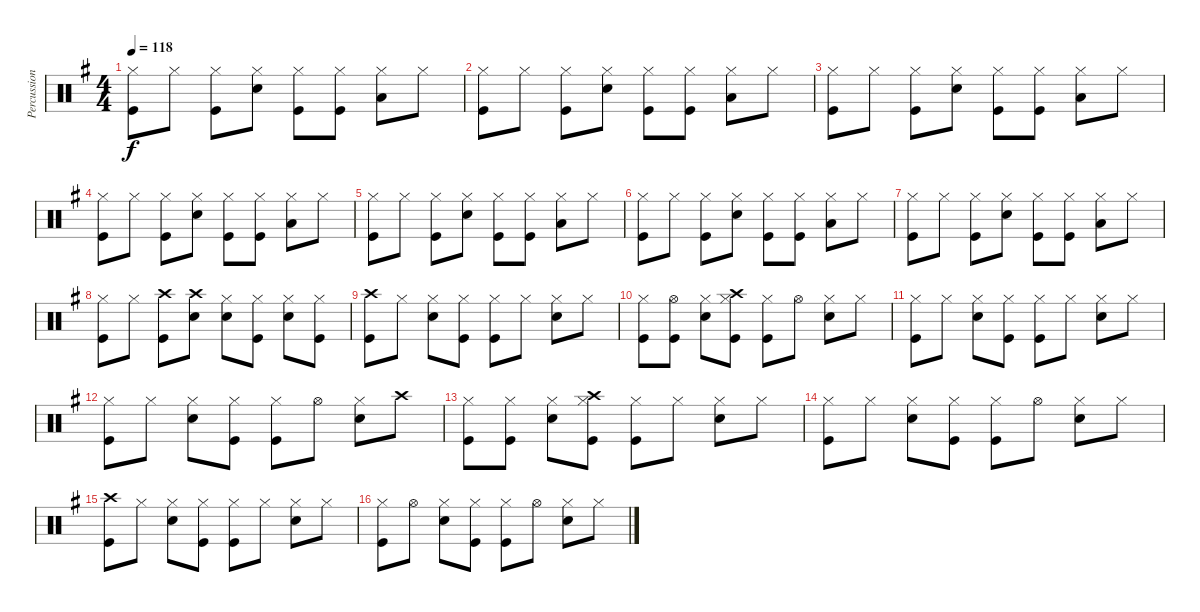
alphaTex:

\track ("Percussion" "Percussion") {instrument percussion}
\staff {score}
\articulation defaults
\ts (4 4)
\tempo 118
\clef neutral
\ks g
("Hi-Hat (closed)" "Kick (hit)").8{dy f} "Hi-Hat (closed)".8 ("Hi-Hat (closed)" "Kick (hit)").8 ("Hi-Hat (closed)" "Electric Snare (hit)").8 ("Hi-Hat (closed)" "Kick (hit)").8 ("Hi-Hat (closed)" "Kick (hit)").8 ("Hi-Hat (closed)" "Low Tom (hit)").8 "Hi-Hat (closed)".8 |
("Hi-Hat (closed)" "Kick (hit)").8 "Hi-Hat (closed)".8 ("Hi-Hat (closed)" "Kick (hit)").8 ("Hi-Hat (closed)" "Electric Snare (hit)").8 ("Hi-Hat (closed)" "Kick (hit)").8 ("Hi-Hat (closed)" "Kick (hit)").8 ("Hi-Hat (closed)" "Low Tom (hit)").8 "Hi-Hat (closed)".8 |
("Hi-Hat (closed)" "Kick (hit)").8 "Hi-Hat (closed)".8 ("Hi-Hat (closed)" "Kick (hit)").8 ("Hi-Hat (closed)" "Electric Snare (hit)").8 ("Hi-Hat (closed)" "Kick (hit)").8 ("Hi-Hat (closed)" "Kick (hit)").8 ("Hi-Hat (closed)" "Low Tom (hit)").8 "Hi-Hat (closed)".8 |
("Hi-Hat (closed)" "Kick (hit)").8 "Hi-Hat (closed)".8 ("Hi-Hat (closed)" "Kick (hit)").8 ("Hi-Hat (closed)" "Electric Snare (hit)").8 ("Hi-Hat (closed)" "Kick (hit)").8 ("Hi-Hat (closed)" "Kick (hit)").8 ("Hi-Hat (closed)" "Low Tom (hit)").8 "Hi-Hat (closed)".8 |
("Hi-Hat (closed)" "Kick (hit)").8 "Hi-Hat (closed)".8 ("Hi-Hat (closed)" "Kick (hit)").8 ("Hi-Hat (closed)" "Electric Snare (hit)").8 ("Hi-Hat (closed)" "Kick (hit)").8 ("Hi-Hat (closed)" "Kick (hit)").8 ("Hi-Hat (closed)" "Low Tom (hit)").8 "Hi-Hat (closed)".8 |
("Hi-Hat (closed)" "Kick (hit)").8 "Hi-Hat (closed)".8 ("Hi-Hat (closed)" "Kick (hit)").8 ("Hi-Hat (closed)" "Electric Snare (hit)").8 ("Hi-Hat (closed)" "Kick (hit)").8 ("Hi-Hat (closed)" "Kick (hit)").8 ("Hi-Hat (closed)" "Low Tom (hit)").8 "Hi-Hat (closed)".8 |
("Hi-Hat (closed)" "Kick (hit)").8 "Hi-Hat (closed)".8 ("Hi-Hat (closed)" "Kick (hit)").8 ("Hi-Hat (closed)" "Electric Snare (hit)").8 ("Hi-Hat (closed)" "Kick (hit)").8 ("Hi-Hat (closed)" "Kick (hit)").8 ("Hi-Hat (closed)" "Low Tom (hit)").8 "Hi-Hat (closed)".8 |
("Hi-Hat (closed)" "Kick (hit)").8 "Hi-Hat (closed)".8 ("Crash high (hit)" "Kick (hit)").8 ("Crash high (hit)" "Electric Snare (hit)").8 ("Hi-Hat (closed)" "Electric Snare (hit)").8 ("Hi-Hat (closed)" "Kick (hit)").8 ("Hi-Hat (closed)" "Electric Snare (hit)").8 ("Hi-Hat (closed)" "Kick (hit)").8 |
("Crash high (hit)" "Kick (hit)").8 "Hi-Hat (closed)".8 ("Hi-Hat (closed)" "Electric Snare (hit)").8 ("Hi-Hat (closed)" "Kick (hit)").8 ("Hi-Hat (closed)" "Kick (hit)").8 "Hi-Hat (closed)".8 ("Hi-Hat (closed)" "Electric Snare (hit)").8 "Hi-Hat (closed)".8 |
("Hi-Hat (closed)" "Kick (hit)").8 ("Hi-Hat (open)" "Kick (hit)").8 ("Hi-Hat (closed)" "Electric Snare (hit)").8 ("Hi-Hat (closed)" "Crash high (hit)" "Kick (hit)").8 ("Hi-Hat (closed)" "Kick (hit)").8 "Hi-Hat (open)".8 ("Hi-Hat (closed)" "Electric Snare (hit)").8 "Hi-Hat (closed)".8 |
("Hi-Hat (closed)" "Kick (hit)").8 "Hi-Hat (closed)".8 ("Hi-Hat (closed)" "Electric Snare (hit)").8 ("Hi-Hat (closed)" "Kick (hit)").8 ("Hi-Hat (closed)" "Kick (hit)").8 "Hi-Hat (closed)".8 ("Hi-Hat (closed)" "Electric Snare (hit)").8 "Hi-Hat (closed)".8 |
("Hi-Hat (closed)" "Kick (hit)").8 "Hi-Hat (closed)".8 ("Hi-Hat (closed)" "Electric Snare (hit)").8 ("Hi-Hat (closed)" "Kick (hit)").8 ("Hi-Hat (closed)" "Kick (hit)").8 "Hi-Hat (open)".8 ("Hi-Hat (closed)" "Electric Snare (hit)").8 "Crash high (hit)".8 |
("Hi-Hat (closed)" "Kick (hit)").8 ("Hi-Hat (closed)" "Kick (hit)").8 ("Hi-Hat (closed)" "Electric Snare (hit)").8 ("Hi-Hat (closed)" "Crash high (hit)" "Kick (hit)").8 ("Hi-Hat (closed)" "Kick (hit)").8 "Hi-Hat (closed)".8 ("Hi-Hat (closed)" "Electric Snare (hit)").8 "Hi-Hat (closed)".8 |
("Hi-Hat (closed)" "Kick (hit)").8 "Hi-Hat (closed)".8 ("Hi-Hat (closed)" "Electric Snare (hit)").8 ("Hi-Hat (closed)" "Kick (hit)").8 ("Hi-Hat (closed)" "Kick (hit)").8 "Hi-Hat (open)".8 ("Hi-Hat (closed)" "Electric Snare (hit)").8 "Hi-Hat (closed)".8 |
("Crash high (hit)" "Kick (hit)").8 "Hi-Hat (closed)".8 ("Hi-Hat (closed)" "Electric Snare (hit)").8 ("Hi-Hat (closed)" "Kick (hit)").8 ("Hi-Hat (closed)" "Kick (hit)").8 "Hi-Hat (closed)".8 ("Hi-Hat (closed)" "Electric Snare (hit)").8 "Hi-Hat (closed)".8 |
("Hi-Hat (closed)" "Kick (hit)").8 "Hi-Hat (open)".8 ("Hi-Hat (closed)" "Electric Snare (hit)").8 ("Hi-Hat (closed)" "Kick (hit)").8 ("Hi-Hat (closed)" "Kick (hit)").8 "Hi-Hat (open)".8 ("Hi-Hat (closed)" "Electric Snare (hit)").8 "Hi-Hat (closed)".8
